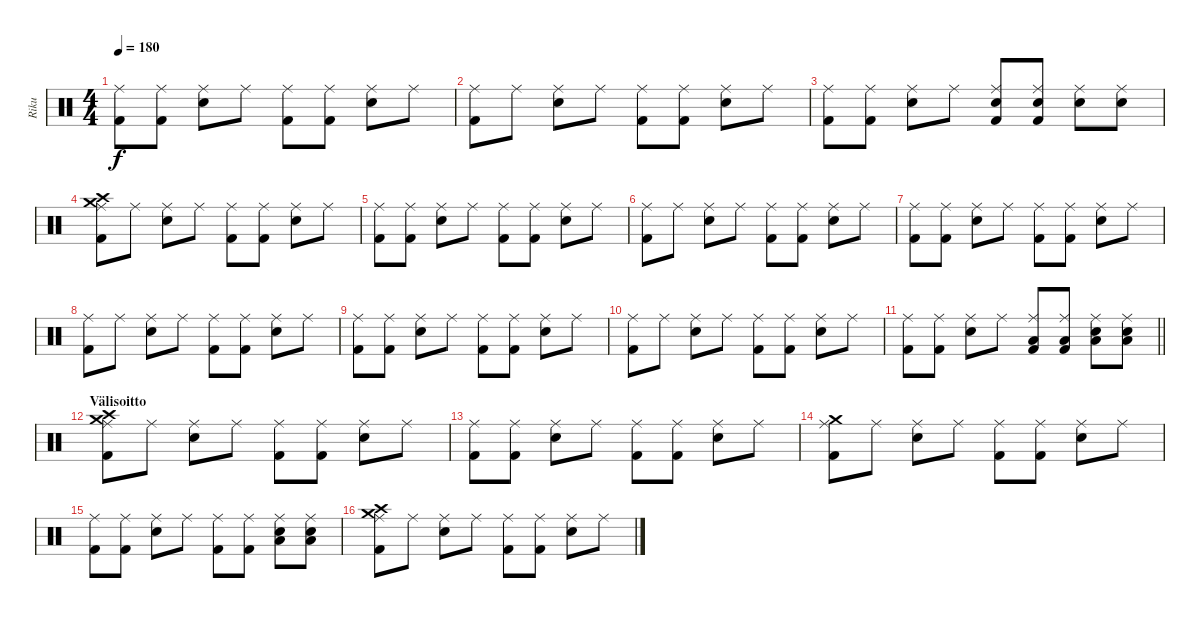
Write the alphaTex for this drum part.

\track ("Riku" "Riku") {instrument percussion}
\staff {score}
\articulation defaults
\ts (4 4)
\tempo 180
\clef neutral
\ks c
("Kick (hit) 2" "Ride (middle)").8{dy f} ("Kick (hit) 2" "Ride (middle)").8 ("Snare (hit) 2" "Ride (middle)").8 "Ride (middle)".8 ("Kick (hit) 2" "Ride (middle)").8 ("Kick (hit) 2" "Ride (middle)").8 ("Snare (hit) 2" "Ride (middle)").8 "Ride (middle)".8 |
("Kick (hit) 2" "Ride (middle)").8 "Ride (middle)".8 ("Snare (hit) 2" "Ride (middle)").8 "Ride (middle)".8 ("Kick (hit) 2" "Ride (middle)").8 ("Kick (hit) 2" "Ride (middle)").8 ("Snare (hit) 2" "Ride (middle)").8 "Ride (middle)".8 |
("Kick (hit) 2" "Ride (middle)").8 ("Kick (hit) 2" "Ride (middle)").8 ("Snare (hit) 2" "Ride (middle)").8 "Ride (middle)".8 ("Snare (hit) 2" "Kick (hit) 2" "Ride (middle)").8 ("Snare (hit) 2" "Kick (hit) 2" "Ride (middle)").8 ("Snare (hit) 2" "Ride (middle)").8 ("Snare (hit) 2" "Ride (middle)").8 |
("Kick (hit) 2" "Ride (middle)" "Crash medium (hit)" "Crash high (hit)").8 "Ride (middle)".8 ("Snare (hit) 2" "Ride (middle)").8 "Ride (middle)".8 ("Kick (hit) 2" "Ride (middle)").8 ("Kick (hit) 2" "Ride (middle)").8 ("Snare (hit) 2" "Ride (middle)").8 "Ride (middle)".8 |
("Kick (hit) 2" "Ride (middle)").8 ("Kick (hit) 2" "Ride (middle)").8 ("Snare (hit) 2" "Ride (middle)").8 "Ride (middle)".8 ("Kick (hit) 2" "Ride (middle)").8 ("Kick (hit) 2" "Ride (middle)").8 ("Snare (hit) 2" "Ride (middle)").8 "Ride (middle)".8 |
("Kick (hit) 2" "Ride (middle)").8 "Ride (middle)".8 ("Snare (hit) 2" "Ride (middle)").8 "Ride (middle)".8 ("Kick (hit) 2" "Ride (middle)").8 ("Kick (hit) 2" "Ride (middle)").8 ("Snare (hit) 2" "Ride (middle)").8 "Ride (middle)".8 |
("Kick (hit) 2" "Ride (middle)").8 ("Kick (hit) 2" "Ride (middle)").8 ("Snare (hit) 2" "Ride (middle)").8 "Ride (middle)".8 ("Kick (hit) 2" "Ride (middle)").8 ("Kick (hit) 2" "Ride (middle)").8 ("Snare (hit) 2" "Ride (middle)").8 "Ride (middle)".8 |
("Kick (hit) 2" "Ride (middle)").8 "Ride (middle)".8 ("Snare (hit) 2" "Ride (middle)").8 "Ride (middle)".8 ("Kick (hit) 2" "Ride (middle)").8 ("Kick (hit) 2" "Ride (middle)").8 ("Snare (hit) 2" "Ride (middle)").8 "Ride (middle)".8 |
("Kick (hit) 2" "Ride (middle)").8 ("Kick (hit) 2" "Ride (middle)").8 ("Snare (hit) 2" "Ride (middle)").8 "Ride (middle)".8 ("Kick (hit) 2" "Ride (middle)").8 ("Kick (hit) 2" "Ride (middle)").8 ("Snare (hit) 2" "Ride (middle)").8 "Ride (middle)".8 |
("Kick (hit) 2" "Ride (middle)").8 "Ride (middle)".8 ("Snare (hit) 2" "Ride (middle)").8 "Ride (middle)".8 ("Kick (hit) 2" "Ride (middle)").8 ("Kick (hit) 2" "Ride (middle)").8 ("Snare (hit) 2" "Ride (middle)").8 "Ride (middle)".8 |
\barLineRight lightlight
("Kick (hit) 2" "Ride (middle)").8 ("Kick (hit) 2" "Ride (middle)").8 ("Snare (hit) 2" "Ride (middle)").8 "Ride (middle)".8 ("Low Floor Tom (hit)" "Kick (hit) 2" "Ride (middle)").8 ("Low Floor Tom (hit)" "Kick (hit) 2" "Ride (middle)").8 ("Low Floor Tom (hit)" "Snare (hit) 2" "Ride (middle)").8 ("Low Floor Tom (hit)" "Ride (middle)" "Snare (hit) 2").8 |
\section ("" "Välisoitto")
("Kick (hit) 2" "Ride (middle)" "Crash medium (hit)" "Crash high (hit)").8{volume 10} "Ride (middle)".8 ("Snare (hit) 2" "Ride (middle)").8 "Ride (middle)".8 ("Kick (hit) 2" "Ride (middle)").8 ("Kick (hit) 2" "Ride (middle)").8 ("Snare (hit) 2" "Ride (middle)").8 "Ride (middle)".8 |
("Kick (hit) 2" "Ride (middle)").8 ("Kick (hit) 2" "Ride (middle)").8 ("Snare (hit) 2" "Ride (middle)").8 "Ride (middle)".8 ("Kick (hit) 2" "Ride (middle)").8 ("Kick (hit) 2" "Ride (middle)").8 ("Snare (hit) 2" "Ride (middle)").8 "Ride (middle)".8 |
("Kick (hit) 2" "Ride (middle)" "Crash medium (hit)").8 "Ride (middle)".8 ("Snare (hit) 2" "Ride (middle)").8 "Ride (middle)".8 ("Kick (hit) 2" "Ride (middle)").8 ("Kick (hit) 2" "Ride (middle)").8 ("Snare (hit) 2" "Ride (middle)").8 "Ride (middle)".8 |
("Kick (hit) 2" "Ride (middle)").8 ("Kick (hit) 2" "Ride (middle)").8 ("Snare (hit) 2" "Ride (middle)").8 "Ride (middle)".8 ("Kick (hit) 2" "Ride (middle)").8 ("Kick (hit) 2" "Ride (middle)").8 ("Low Floor Tom (hit)" "Snare (hit) 2" "Ride (middle)").8 ("Low Floor Tom (hit)" "Snare (hit) 2" "Ride (middle)").8 |
("Kick (hit) 2" "Ride (middle)" "Crash medium (hit)" "Crash high (hit)").8 "Ride (middle)".8 ("Snare (hit) 2" "Ride (middle)").8 "Ride (middle)".8 ("Kick (hit) 2" "Ride (middle)").8 ("Kick (hit) 2" "Ride (middle)").8 ("Snare (hit) 2" "Ride (middle)").8 "Ride (middle)".8
